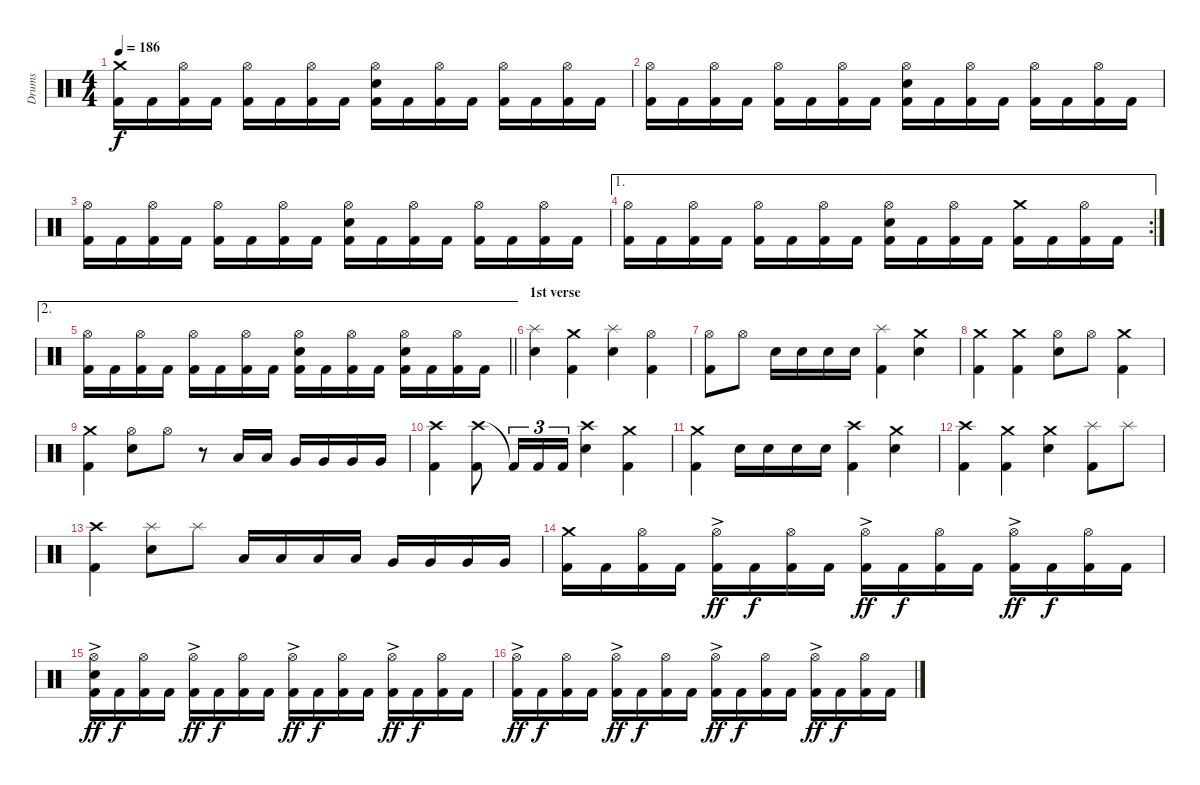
\track ("Drums" "Drums") {instrument percussion}
\staff {score}
\articulation defaults
\ts (4 4)
\tempo 186
\clef neutral
\ks c
("Crash medium (hit)" "Kick (hit) 2").16{dy f} "Kick (hit) 2".16 ("Hi-Hat (open)" "Kick (hit) 2").16 "Kick (hit) 2".16 ("Hi-Hat (open)" "Kick (hit) 2").16 "Kick (hit) 2".16 ("Hi-Hat (open)" "Kick (hit) 2").16 "Kick (hit) 2".16 ("Hi-Hat (open)" "Electric Snare (hit)" "Kick (hit) 2").16 "Kick (hit) 2".16 ("Hi-Hat (open)" "Kick (hit) 2").16 "Kick (hit) 2".16 ("Hi-Hat (open)" "Kick (hit) 2").16 "Kick (hit) 2".16 ("Hi-Hat (open)" "Kick (hit) 2").16 "Kick (hit) 2".16 |
("Hi-Hat (open)" "Kick (hit) 2").16 "Kick (hit) 2".16 ("Hi-Hat (open)" "Kick (hit) 2").16 "Kick (hit) 2".16 ("Hi-Hat (open)" "Kick (hit) 2").16 "Kick (hit) 2".16 ("Hi-Hat (open)" "Kick (hit) 2").16 "Kick (hit) 2".16 ("Hi-Hat (open)" "Electric Snare (hit)" "Kick (hit) 2").16 "Kick (hit) 2".16 ("Hi-Hat (open)" "Kick (hit) 2").16 "Kick (hit) 2".16 ("Hi-Hat (open)" "Kick (hit) 2").16 "Kick (hit) 2".16 ("Hi-Hat (open)" "Kick (hit) 2").16 "Kick (hit) 2".16 |
("Hi-Hat (open)" "Kick (hit) 2").16 "Kick (hit) 2".16 ("Hi-Hat (open)" "Kick (hit) 2").16 "Kick (hit) 2".16 ("Hi-Hat (open)" "Kick (hit) 2").16 "Kick (hit) 2".16 ("Hi-Hat (open)" "Kick (hit) 2").16 "Kick (hit) 2".16 ("Hi-Hat (open)" "Electric Snare (hit)" "Kick (hit) 2").16 "Kick (hit) 2".16 ("Hi-Hat (open)" "Kick (hit) 2").16 "Kick (hit) 2".16 ("Hi-Hat (open)" "Kick (hit) 2").16 "Kick (hit) 2".16 ("Hi-Hat (open)" "Kick (hit) 2").16 "Kick (hit) 2".16 |
\ae 1
\rc 2
("Hi-Hat (open)" "Kick (hit) 2").16 "Kick (hit) 2".16 ("Hi-Hat (open)" "Kick (hit) 2").16 "Kick (hit) 2".16 ("Hi-Hat (open)" "Kick (hit) 2").16 "Kick (hit) 2".16 ("Hi-Hat (open)" "Kick (hit) 2").16 "Kick (hit) 2".16 ("Hi-Hat (open)" "Electric Snare (hit)" "Kick (hit) 2").16 "Kick (hit) 2".16 ("Hi-Hat (open)" "Kick (hit) 2").16 "Kick (hit) 2".16 ("Crash medium (hit)" "Kick (hit) 2").16 "Kick (hit) 2".16 ("Hi-Hat (open)" "Kick (hit) 2").16 "Kick (hit) 2".16 |
\ae 2
\barLineRight lightlight
("Hi-Hat (open)" "Kick (hit) 2").16 "Kick (hit) 2".16 ("Hi-Hat (open)" "Kick (hit) 2").16 "Kick (hit) 2".16 ("Hi-Hat (open)" "Kick (hit) 2").16 "Kick (hit) 2".16 ("Hi-Hat (open)" "Kick (hit) 2").16 "Kick (hit) 2".16 ("Hi-Hat (open)" "Electric Snare (hit)" "Kick (hit) 2").16 "Kick (hit) 2".16 ("Hi-Hat (open)" "Kick (hit) 2").16 "Kick (hit) 2".16 ("Hi-Hat (open)" "Electric Snare (hit)" "Kick (hit) 2").16 "Kick (hit) 2".16 ("Hi-Hat (open)" "Kick (hit) 2").16 "Kick (hit) 2".16 |
\section ("" "1st verse")
("Splash (hit)" "Electric Snare (hit)").4 ("Crash medium (hit)" "Kick (hit) 2").4 ("Splash (hit)" "Electric Snare (hit)").4 ("Hi-Hat (open)" "Kick (hit) 2").4 |
("Hi-Hat (open)" "Kick (hit) 2").8 "Hi-Hat (open)".8 "Electric Snare (hit)".16 "Electric Snare (hit)".16 "Electric Snare (hit)".16 "Electric Snare (hit)".16 ("Splash (hit)" "Kick (hit) 2").4 ("Crash medium (hit)" "Electric Snare (hit)").4 |
("Crash medium (hit)" "Kick (hit) 2").4 ("Crash medium (hit)" "Kick (hit) 2").4 ("Hi-Hat (open)" "Electric Snare (hit)").8 "Hi-Hat (open)".8 ("Crash medium (hit)" "Kick (hit) 2").4 |
("Crash medium (hit)" "Kick (hit) 2").4 ("Hi-Hat (open)" "Electric Snare (hit)").8 "Hi-Hat (open)".8 r.8 "Low Tom (hit)".16 "Low Tom (hit)".16 "Very Low Tom (hit)".16 "Very Low Tom (hit)".16 "Very Low Tom (hit)".16 "Very Low Tom (hit)".16 |
("Crash high (hit)" "Kick (hit) 2").4 ("Crash high (hit)" "Kick (hit) 2").8 "Kick (hit) 2"{t}.16{tu (3 2)} "Kick (hit) 2".16{tu (3 2)} "Kick (hit) 2".16{tu (3 2)} ("Crash high (hit)" "Electric Snare (hit)").4 ("Crash medium (hit)" "Kick (hit) 2").4 |
("Crash medium (hit)" "Kick (hit) 2").4 "Electric Snare (hit)".16 "Electric Snare (hit)".16 "Electric Snare (hit)".16 "Electric Snare (hit)".16 ("Crash high (hit)" "Kick (hit) 2").4 ("Crash medium (hit)" "Electric Snare (hit)").4 |
("Crash high (hit)" "Kick (hit) 2").4 ("Crash medium (hit)" "Kick (hit) 2").4 ("Crash medium (hit)" "Electric Snare (hit)").4 ("Splash (hit)" "Kick (hit) 2").8 "Splash (hit)".8 |
("Crash high (hit)" "Kick (hit) 2").4 ("Splash (hit)" "Electric Snare (hit)").8 "Splash (hit)".8 "Low Tom (hit)".16 "Low Tom (hit)".16 "Low Tom (hit)".16 "Low Tom (hit)".16 "Very Low Tom (hit)".16 "Very Low Tom (hit)".16 "Very Low Tom (hit)".16 "Very Low Tom (hit)".16 |
("Crash medium (hit)" "Kick (hit) 2").16 "Kick (hit) 2".16 ("Hi-Hat (open)" "Kick (hit) 2").16 "Kick (hit) 2".16 ("Hi-Hat (open)"{ac} "Kick (hit) 2").16{dy ff} "Kick (hit) 2".16{dy f} ("Hi-Hat (open)" "Kick (hit) 2").16 "Kick (hit) 2".16 ("Hi-Hat (open)"{ac} "Kick (hit) 2").16{dy ff} "Kick (hit) 2".16{dy f} ("Hi-Hat (open)" "Kick (hit) 2").16 "Kick (hit) 2".16 ("Hi-Hat (open)"{ac} "Kick (hit) 2").16{dy ff} "Kick (hit) 2".16{dy f} ("Hi-Hat (open)" "Kick (hit) 2").16 "Kick (hit) 2".16 |
("Hi-Hat (open)"{ac} "Electric Snare (hit)" "Kick (hit) 2").16{dy ff} "Kick (hit) 2".16{dy f} ("Hi-Hat (open)" "Kick (hit) 2").16 "Kick (hit) 2".16 ("Hi-Hat (open)"{ac} "Kick (hit) 2").16{dy ff} "Kick (hit) 2".16{dy f} ("Hi-Hat (open)" "Kick (hit) 2").16 "Kick (hit) 2".16 ("Hi-Hat (open)"{ac} "Kick (hit) 2").16{dy ff} "Kick (hit) 2".16{dy f} ("Hi-Hat (open)" "Kick (hit) 2").16 "Kick (hit) 2".16 ("Hi-Hat (open)"{ac} "Kick (hit) 2").16{dy ff} "Kick (hit) 2".16{dy f} ("Hi-Hat (open)" "Kick (hit) 2").16 "Kick (hit) 2".16 |
("Hi-Hat (open)"{ac} "Kick (hit) 2").16{dy ff} "Kick (hit) 2".16{dy f} ("Hi-Hat (open)" "Kick (hit) 2").16 "Kick (hit) 2".16 ("Hi-Hat (open)"{ac} "Kick (hit) 2").16{dy ff} "Kick (hit) 2".16{dy f} ("Hi-Hat (open)" "Kick (hit) 2").16 "Kick (hit) 2".16 ("Hi-Hat (open)"{ac} "Kick (hit) 2").16{dy ff} "Kick (hit) 2".16{dy f} ("Hi-Hat (open)" "Kick (hit) 2").16 "Kick (hit) 2".16 ("Hi-Hat (open)"{ac} "Kick (hit) 2").16{dy ff} "Kick (hit) 2".16{dy f} ("Hi-Hat (open)" "Kick (hit) 2").16 "Kick (hit) 2".16
